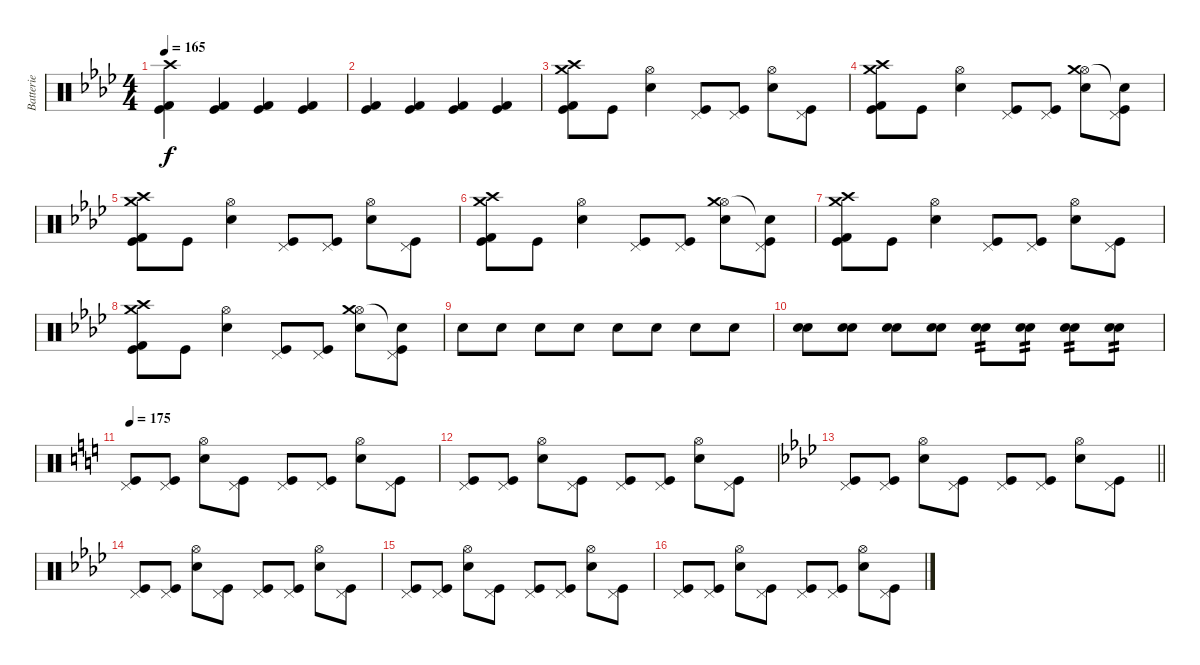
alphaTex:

\track ("Batterie" "Batterie") {instrument percussion}
\staff {score}
\articulation defaults
\ts (4 4)
\tempo 165
\clef neutral
\ks ab
("Kick (hit)" "Kick (hit) 2" "Crash high (hit)").4{dy f} ("Kick (hit)" "Kick (hit) 2").4 ("Kick (hit)" "Kick (hit) 2").4 ("Kick (hit)" "Kick (hit) 2").4 |
("Kick (hit)" "Kick (hit) 2").4 ("Kick (hit)" "Kick (hit) 2").4 ("Kick (hit)" "Kick (hit) 2").4 ("Kick (hit)" "Kick (hit) 2").4 |
("Kick (hit)" "Kick (hit) 2" "Crash high (hit)" "Crash medium (hit)").8 "Kick (hit)".8 ("Snare (hit) 2" "Hi-Hat (open)").4 ("Kick (hit)" "Pedal Hi-Hat (hit)").8 ("Kick (hit)" "Pedal Hi-Hat (hit)").8 ("Snare (hit) 2" "Hi-Hat (open)").8 ("Kick (hit)" "Pedal Hi-Hat (hit)").8 |
("Kick (hit)" "Kick (hit) 2" "Crash high (hit)" "Crash medium (hit)").8 "Kick (hit)".8 ("Snare (hit) 2" "Hi-Hat (open)").4 ("Kick (hit)" "Pedal Hi-Hat (hit)").8 ("Kick (hit)" "Pedal Hi-Hat (hit)").8 ("Snare (hit) 2" "Hi-Hat (open)" "Crash medium (hit)").8 ("Kick (hit)" "Pedal Hi-Hat (hit)" "Snare (hit)"{t}).8 |
("Kick (hit)" "Kick (hit) 2" "Crash high (hit)" "Crash medium (hit)").8 "Kick (hit)".8 ("Snare (hit) 2" "Hi-Hat (open)").4 ("Kick (hit)" "Pedal Hi-Hat (hit)").8 ("Kick (hit)" "Pedal Hi-Hat (hit)").8 ("Snare (hit) 2" "Hi-Hat (open)").8 ("Kick (hit)" "Pedal Hi-Hat (hit)").8 |
("Kick (hit)" "Kick (hit) 2" "Crash high (hit)" "Crash medium (hit)").8 "Kick (hit)".8 ("Snare (hit) 2" "Hi-Hat (open)").4 ("Kick (hit)" "Pedal Hi-Hat (hit)").8 ("Kick (hit)" "Pedal Hi-Hat (hit)").8 ("Snare (hit) 2" "Hi-Hat (open)" "Crash medium (hit)").8 ("Kick (hit)" "Pedal Hi-Hat (hit)" "Snare (hit)"{t}).8 |
("Kick (hit)" "Kick (hit) 2" "Crash high (hit)" "Crash medium (hit)").8 "Kick (hit)".8 ("Snare (hit) 2" "Hi-Hat (open)").4 ("Kick (hit)" "Pedal Hi-Hat (hit)").8 ("Kick (hit)" "Pedal Hi-Hat (hit)").8 ("Snare (hit) 2" "Hi-Hat (open)").8 ("Kick (hit)" "Pedal Hi-Hat (hit)").8 |
("Kick (hit)" "Kick (hit) 2" "Crash high (hit)" "Crash medium (hit)").8 "Kick (hit)".8 ("Snare (hit) 2" "Hi-Hat (open)").4 ("Kick (hit)" "Pedal Hi-Hat (hit)").8 ("Kick (hit)" "Pedal Hi-Hat (hit)").8 ("Snare (hit) 2" "Hi-Hat (open)" "Crash medium (hit)").8 ("Kick (hit)" "Pedal Hi-Hat (hit)" "Snare (hit)"{t}).8 |
"Electric Snare (hit)".8 "Electric Snare (hit)".8 "Electric Snare (hit)".8 "Electric Snare (hit)".8 "Electric Snare (hit)".8 "Electric Snare (hit)".8 "Electric Snare (hit)".8 "Electric Snare (hit)".8 |
("Snare (hit) 2" "Electric Snare (hit)").8 ("Snare (hit) 2" "Electric Snare (hit)").8 ("Snare (hit) 2" "Electric Snare (hit)").8 ("Snare (hit) 2" "Electric Snare (hit)").8 ("Snare (hit) 2" "Electric Snare (hit)").8{tp 2} ("Snare (hit) 2" "Electric Snare (hit)").8{tp 2} ("Snare (hit) 2" "Electric Snare (hit)").8{tp 2} ("Snare (hit) 2" "Electric Snare (hit)").8{tp 2} |
\tempo 175
\ks c
("Kick (hit)" "Pedal Hi-Hat (hit)").8 ("Kick (hit)" "Pedal Hi-Hat (hit)").8 ("Snare (hit) 2" "Hi-Hat (open)").8 ("Kick (hit)" "Pedal Hi-Hat (hit)").8 ("Kick (hit)" "Pedal Hi-Hat (hit)").8 ("Kick (hit)" "Pedal Hi-Hat (hit)").8 ("Snare (hit) 2" "Hi-Hat (open)").8 ("Kick (hit)" "Pedal Hi-Hat (hit)").8 |
("Kick (hit)" "Pedal Hi-Hat (hit)").8 ("Kick (hit)" "Pedal Hi-Hat (hit)").8 ("Snare (hit) 2" "Hi-Hat (open)").8 ("Kick (hit)" "Pedal Hi-Hat (hit)").8 ("Kick (hit)" "Pedal Hi-Hat (hit)").8 ("Kick (hit)" "Pedal Hi-Hat (hit)").8 ("Snare (hit) 2" "Hi-Hat (open)").8 ("Kick (hit)" "Pedal Hi-Hat (hit)").8 |
\barLineRight lightlight
\ks ab
("Kick (hit)" "Pedal Hi-Hat (hit)").8 ("Kick (hit)" "Pedal Hi-Hat (hit)").8 ("Snare (hit) 2" "Hi-Hat (open)").8 ("Kick (hit)" "Pedal Hi-Hat (hit)").8 ("Kick (hit)" "Pedal Hi-Hat (hit)").8 ("Kick (hit)" "Pedal Hi-Hat (hit)").8 ("Snare (hit) 2" "Hi-Hat (open)").8 ("Kick (hit)" "Pedal Hi-Hat (hit)").8 |
("Kick (hit)" "Pedal Hi-Hat (hit)").8 ("Kick (hit)" "Pedal Hi-Hat (hit)").8 ("Snare (hit) 2" "Hi-Hat (open)").8 ("Kick (hit)" "Pedal Hi-Hat (hit)").8 ("Kick (hit)" "Pedal Hi-Hat (hit)").8 ("Kick (hit)" "Pedal Hi-Hat (hit)").8 ("Snare (hit) 2" "Hi-Hat (open)").8 ("Kick (hit)" "Pedal Hi-Hat (hit)").8 |
("Kick (hit)" "Pedal Hi-Hat (hit)").8 ("Kick (hit)" "Pedal Hi-Hat (hit)").8 ("Snare (hit) 2" "Hi-Hat (open)").8 ("Kick (hit)" "Pedal Hi-Hat (hit)").8 ("Kick (hit)" "Pedal Hi-Hat (hit)").8 ("Kick (hit)" "Pedal Hi-Hat (hit)").8 ("Snare (hit) 2" "Hi-Hat (open)").8 ("Kick (hit)" "Pedal Hi-Hat (hit)").8 |
("Kick (hit)" "Pedal Hi-Hat (hit)").8 ("Kick (hit)" "Pedal Hi-Hat (hit)").8 ("Snare (hit) 2" "Hi-Hat (open)").8 ("Kick (hit)" "Pedal Hi-Hat (hit)").8 ("Kick (hit)" "Pedal Hi-Hat (hit)").8 ("Kick (hit)" "Pedal Hi-Hat (hit)").8 ("Snare (hit) 2" "Hi-Hat (open)").8 ("Kick (hit)" "Pedal Hi-Hat (hit)").8
